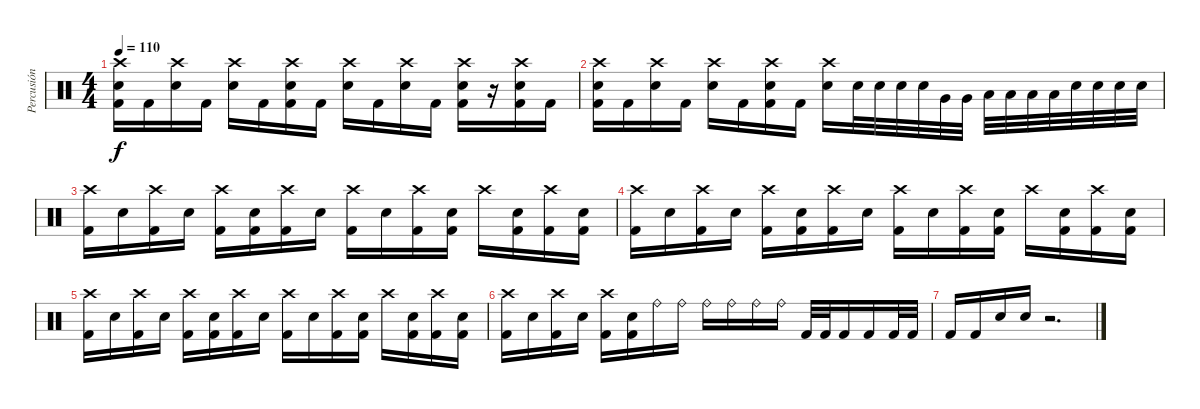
\track ("Percusión" "Percusión") {instrument percussion}
\staff {score}
\articulation defaults
\ts (4 4)
\tempo 110
\clef neutral
\ks c
("Crash high (hit)" "Electric Snare (hit)" "Kick (hit) 2").16{dy f} "Kick (hit) 2".16 ("Crash high (hit)" "Electric Snare (hit)").16 "Kick (hit) 2".16 ("Crash high (hit)" "Electric Snare (hit)").16 "Kick (hit) 2".16 ("Crash high (hit)" "Electric Snare (hit)" "Kick (hit) 2").16 "Kick (hit) 2".16 ("Crash high (hit)" "Electric Snare (hit)").16 "Kick (hit) 2".16 ("Crash high (hit)" "Electric Snare (hit)").16 "Kick (hit) 2".16 ("Crash high (hit)" "Electric Snare (hit)" "Kick (hit) 2").16 r.16 ("Crash high (hit)" "Electric Snare (hit)" "Kick (hit) 2").16 "Kick (hit) 2".16 |
("Crash high (hit)" "Electric Snare (hit)" "Kick (hit) 2").16 "Kick (hit) 2".16 ("Crash high (hit)" "Electric Snare (hit)").16 "Kick (hit) 2".16 ("Crash high (hit)" "Electric Snare (hit)").16 "Kick (hit) 2".16 ("Crash high (hit)" "Electric Snare (hit)" "Kick (hit) 2").16 "Kick (hit) 2".16 ("Crash high (hit)" "Electric Snare (hit)").16 "Electric Snare (hit)".32 "Electric Snare (hit)".32 "Electric Snare (hit)".32 "Electric Snare (hit)".32 "Very Low Tom (hit)".32 "Very Low Tom (hit)".32 "Low Tom (hit)".32 "Low Tom (hit)".32 "Low Floor Tom (hit)".32 "Low Floor Tom (hit)".32 "Electric Snare (hit)".32 "Electric Snare (hit)".32 "Electric Snare (hit)".32 "Electric Snare (hit)".32 |
("Crash high (hit)" "Kick (hit) 2").16 "Electric Snare (hit)".16 ("Crash high (hit)" "Kick (hit) 2").16 "Electric Snare (hit)".16 ("Crash high (hit)" "Kick (hit) 2").16 ("Electric Snare (hit)" "Kick (hit) 2").16 ("Crash high (hit)" "Kick (hit) 2").16 "Electric Snare (hit)".16 ("Crash high (hit)" "Kick (hit) 2").16 "Electric Snare (hit)".16 ("Crash high (hit)" "Kick (hit) 2").16 ("Electric Snare (hit)" "Kick (hit) 2").16 "Crash high (hit)".16 ("Electric Snare (hit)" "Kick (hit) 2").16 ("Crash high (hit)" "Kick (hit) 2").16 ("Electric Snare (hit)" "Kick (hit) 2").16 |
("Crash high (hit)" "Kick (hit) 2").16 "Electric Snare (hit)".16 ("Crash high (hit)" "Kick (hit) 2").16 "Electric Snare (hit)".16 ("Crash high (hit)" "Kick (hit) 2").16 ("Electric Snare (hit)" "Kick (hit) 2").16 ("Crash high (hit)" "Kick (hit) 2").16 "Electric Snare (hit)".16 ("Crash high (hit)" "Kick (hit) 2").16 "Electric Snare (hit)".16 ("Crash high (hit)" "Kick (hit) 2").16 ("Electric Snare (hit)" "Kick (hit) 2").16 "Crash high (hit)".16 ("Electric Snare (hit)" "Kick (hit) 2").16 ("Crash high (hit)" "Kick (hit) 2").16 ("Electric Snare (hit)" "Kick (hit) 2").16 |
("Crash high (hit)" "Kick (hit) 2").16 "Electric Snare (hit)".16 ("Crash high (hit)" "Kick (hit) 2").16 "Electric Snare (hit)".16 ("Crash high (hit)" "Kick (hit) 2").16 ("Electric Snare (hit)" "Kick (hit) 2").16 ("Crash high (hit)" "Kick (hit) 2").16 "Electric Snare (hit)".16 ("Crash high (hit)" "Kick (hit) 2").16 "Electric Snare (hit)".16 ("Crash high (hit)" "Kick (hit) 2").16 ("Electric Snare (hit)" "Kick (hit) 2").16 "Crash high (hit)".16 ("Electric Snare (hit)" "Kick (hit) 2").16 ("Crash high (hit)" "Kick (hit) 2").16 ("Electric Snare (hit)" "Kick (hit) 2").16 |
("Crash high (hit)" "Kick (hit) 2").16 "Electric Snare (hit)".16 ("Crash high (hit)" "Kick (hit) 2").16 "Electric Snare (hit)".16 ("Crash high (hit)" "Kick (hit) 2").16 ("Electric Snare (hit)" "Kick (hit) 2").16 "Ride (bell)".16 "Ride (bell)".16 "Ride (bell)".16 "Ride (bell)".16 "Ride (bell)".16 "Ride (bell)".16 "Kick (hit) 2".32 "Kick (hit) 2".32 "Kick (hit) 2".16 "Kick (hit) 2".16 "Kick (hit) 2".32 "Kick (hit) 2".32 |
"Kick (hit) 2".16 "Kick (hit) 2".16 "Electric Snare (hit)".16 "Electric Snare (hit)".16 r.2{d}
